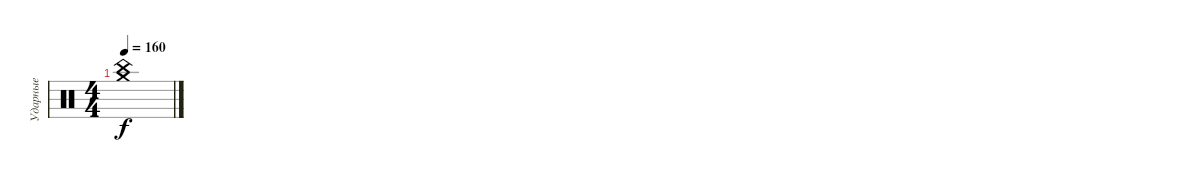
\track ("Ударные" "Ударные") {instrument percussion}
\staff {score}
\articulation defaults
\ts (4 4)
\tempo 160
\clef neutral
\ks c
("China (hit)" "Crash medium (hit)").1{dy f}
